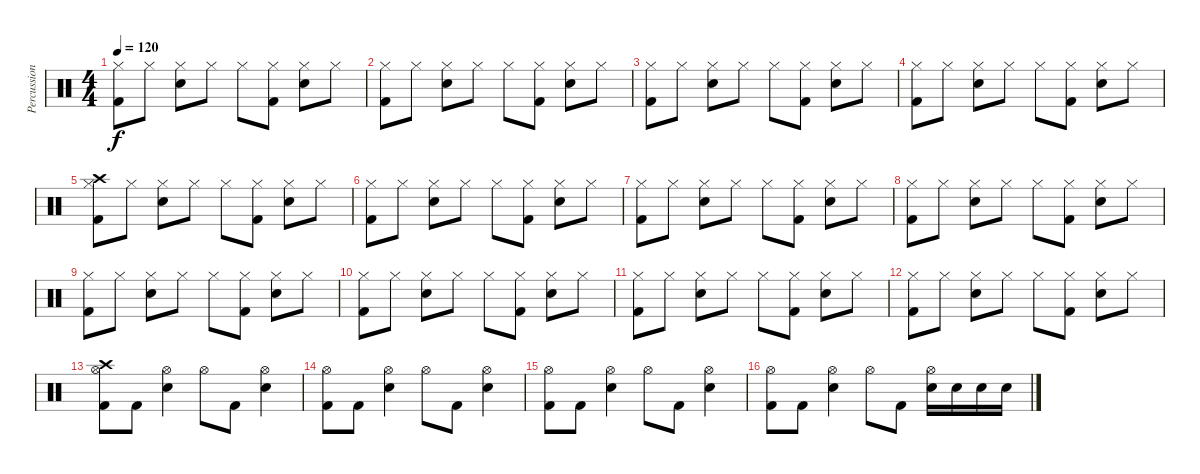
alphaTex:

\track ("Percussion" "Percussion") {instrument percussion}
\staff {score}
\articulation defaults
\ts (4 4)
\tempo 120
\clef neutral
\ks c
("Hi-Hat (closed)" "Kick (hit) 2").8{dy f} "Hi-Hat (closed)".8 ("Hi-Hat (closed)" "Electric Snare (hit)").8 "Hi-Hat (closed)".8 "Hi-Hat (closed)".8 ("Hi-Hat (closed)" "Kick (hit) 2").8 ("Hi-Hat (closed)" "Electric Snare (hit)").8 "Hi-Hat (closed)".8 |
("Hi-Hat (closed)" "Kick (hit) 2").8 "Hi-Hat (closed)".8 ("Hi-Hat (closed)" "Electric Snare (hit)").8 "Hi-Hat (closed)".8 "Hi-Hat (closed)".8 ("Hi-Hat (closed)" "Kick (hit) 2").8 ("Hi-Hat (closed)" "Electric Snare (hit)").8 "Hi-Hat (closed)".8 |
("Hi-Hat (closed)" "Kick (hit) 2").8 "Hi-Hat (closed)".8 ("Hi-Hat (closed)" "Electric Snare (hit)").8 "Hi-Hat (closed)".8 "Hi-Hat (closed)".8 ("Hi-Hat (closed)" "Kick (hit) 2").8 ("Hi-Hat (closed)" "Electric Snare (hit)").8 "Hi-Hat (closed)".8 |
("Hi-Hat (closed)" "Kick (hit) 2").8 "Hi-Hat (closed)".8 ("Hi-Hat (closed)" "Electric Snare (hit)").8 "Hi-Hat (closed)".8 "Hi-Hat (closed)".8 ("Hi-Hat (closed)" "Kick (hit) 2").8 ("Hi-Hat (closed)" "Electric Snare (hit)").8 "Hi-Hat (closed)".8 |
("Hi-Hat (closed)" "Crash high (hit)" "Kick (hit) 2").8 "Hi-Hat (closed)".8 ("Hi-Hat (closed)" "Electric Snare (hit)").8 "Hi-Hat (closed)".8 "Hi-Hat (closed)".8 ("Hi-Hat (closed)" "Kick (hit) 2").8 ("Hi-Hat (closed)" "Electric Snare (hit)").8 "Hi-Hat (closed)".8 |
("Hi-Hat (closed)" "Kick (hit) 2").8 "Hi-Hat (closed)".8 ("Hi-Hat (closed)" "Electric Snare (hit)").8 "Hi-Hat (closed)".8 "Hi-Hat (closed)".8 ("Hi-Hat (closed)" "Kick (hit) 2").8 ("Hi-Hat (closed)" "Electric Snare (hit)").8 "Hi-Hat (closed)".8 |
("Hi-Hat (closed)" "Kick (hit) 2").8 "Hi-Hat (closed)".8 ("Hi-Hat (closed)" "Electric Snare (hit)").8 "Hi-Hat (closed)".8 "Hi-Hat (closed)".8 ("Hi-Hat (closed)" "Kick (hit) 2").8 ("Hi-Hat (closed)" "Electric Snare (hit)").8 "Hi-Hat (closed)".8 |
("Hi-Hat (closed)" "Kick (hit) 2").8 "Hi-Hat (closed)".8 ("Hi-Hat (closed)" "Electric Snare (hit)").8 "Hi-Hat (closed)".8 "Hi-Hat (closed)".8 ("Hi-Hat (closed)" "Kick (hit) 2").8 ("Hi-Hat (closed)" "Electric Snare (hit)").8 "Hi-Hat (closed)".8 |
("Hi-Hat (closed)" "Kick (hit) 2").8 "Hi-Hat (closed)".8 ("Hi-Hat (closed)" "Electric Snare (hit)").8 "Hi-Hat (closed)".8 "Hi-Hat (closed)".8 ("Hi-Hat (closed)" "Kick (hit) 2").8 ("Hi-Hat (closed)" "Electric Snare (hit)").8 "Hi-Hat (closed)".8 |
("Hi-Hat (closed)" "Kick (hit) 2").8 "Hi-Hat (closed)".8 ("Hi-Hat (closed)" "Electric Snare (hit)").8 "Hi-Hat (closed)".8 "Hi-Hat (closed)".8 ("Hi-Hat (closed)" "Kick (hit) 2").8 ("Hi-Hat (closed)" "Electric Snare (hit)").8 "Hi-Hat (closed)".8 |
("Hi-Hat (closed)" "Kick (hit) 2").8 "Hi-Hat (closed)".8 ("Hi-Hat (closed)" "Electric Snare (hit)").8 "Hi-Hat (closed)".8 "Hi-Hat (closed)".8 ("Hi-Hat (closed)" "Kick (hit) 2").8 ("Hi-Hat (closed)" "Electric Snare (hit)").8 "Hi-Hat (closed)".8 |
("Hi-Hat (closed)" "Kick (hit) 2").8 "Hi-Hat (closed)".8 ("Hi-Hat (closed)" "Electric Snare (hit)").8 "Hi-Hat (closed)".8 "Hi-Hat (closed)".8 ("Hi-Hat (closed)" "Kick (hit) 2").8 ("Hi-Hat (closed)" "Electric Snare (hit)").8 "Hi-Hat (closed)".8 |
("Crash high (hit)" "Kick (hit) 2" "Hi-Hat (open)").8 "Kick (hit) 2".8 ("Electric Snare (hit)" "Hi-Hat (open)").4 "Hi-Hat (open)".8 "Kick (hit) 2".8 ("Electric Snare (hit)" "Hi-Hat (open)").4 |
("Kick (hit) 2" "Hi-Hat (open)").8 "Kick (hit) 2".8 ("Electric Snare (hit)" "Hi-Hat (open)").4 "Hi-Hat (open)".8 "Kick (hit) 2".8 ("Electric Snare (hit)" "Hi-Hat (open)").4 |
("Kick (hit) 2" "Hi-Hat (open)").8 "Kick (hit) 2".8 ("Electric Snare (hit)" "Hi-Hat (open)").4 "Hi-Hat (open)".8 "Kick (hit) 2".8 ("Electric Snare (hit)" "Hi-Hat (open)").4 |
("Kick (hit) 2" "Hi-Hat (open)").8 "Kick (hit) 2".8 ("Electric Snare (hit)" "Hi-Hat (open)").4 "Hi-Hat (open)".8 "Kick (hit) 2".8 ("Electric Snare (hit)" "Hi-Hat (open)").16 "Electric Snare (hit)".16 "Electric Snare (hit)".16 "Electric Snare (hit)".16
